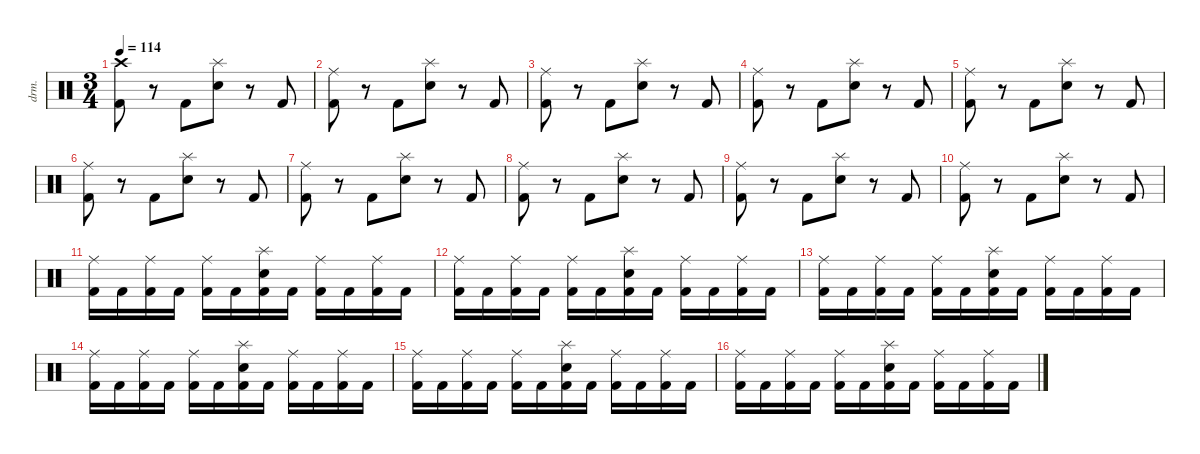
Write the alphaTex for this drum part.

\defaultSystemsLayout 4
\hideDynamics
\bracketExtendMode nobrackets
\otherSystemsTrackNameOrientation horizontal
\track ("Drums" "drm.") {instrument percussion}
\staff {score}
\articulation defaults
\ts (3 4)
\tempo 114
\clef neutral
\ks c
("Crash high (hit)" "Kick (hit) 2").8{dy mp} r.8 "Kick (hit) 2".8 ("Splash (hit)" "Snare (hit) 2").8 r.8 "Kick (hit) 2".8 |
("Ride (middle)" "Kick (hit) 2").8 r.8 "Kick (hit) 2".8 ("Splash (hit)" "Snare (hit) 2").8 r.8 "Kick (hit) 2".8 |
("Ride (middle)" "Kick (hit) 2").8 r.8 "Kick (hit) 2".8 ("Splash (hit)" "Snare (hit) 2").8 r.8 "Kick (hit) 2".8 |
("Ride (middle)" "Kick (hit) 2").8 r.8 "Kick (hit) 2".8 ("Splash (hit)" "Snare (hit) 2").8 r.8 "Kick (hit) 2".8 |
("Ride (middle)" "Kick (hit) 2").8 r.8 "Kick (hit) 2".8 ("Splash (hit)" "Snare (hit) 2").8 r.8 "Kick (hit) 2".8 |
("Ride (middle)" "Kick (hit) 2").8 r.8 "Kick (hit) 2".8 ("Splash (hit)" "Snare (hit) 2").8 r.8 "Kick (hit) 2".8 |
("Ride (middle)" "Kick (hit) 2").8 r.8 "Kick (hit) 2".8 ("Splash (hit)" "Snare (hit) 2").8 r.8 "Kick (hit) 2".8 |
("Ride (middle)" "Kick (hit) 2").8 r.8 "Kick (hit) 2".8 ("Splash (hit)" "Snare (hit) 2").8 r.8 "Kick (hit) 2".8 |
("Ride (middle)" "Kick (hit) 2").8 r.8 "Kick (hit) 2".8 ("Splash (hit)" "Snare (hit) 2").8 r.8 "Kick (hit) 2".8 |
("Ride (middle)" "Kick (hit) 2").8 r.8 "Kick (hit) 2".8 ("Splash (hit)" "Snare (hit) 2").8 r.8 "Kick (hit) 2".8 |
("Ride (middle)" "Kick (hit) 2").16{dy f} "Kick (hit) 2".16 ("Ride (middle)" "Kick (hit) 2").16 "Kick (hit) 2".16 ("Ride (middle)" "Kick (hit) 2").16 "Kick (hit) 2".16 ("Splash (hit)" "Snare (hit) 2" "Kick (hit) 2").16 "Kick (hit) 2".16 ("Ride (middle)" "Kick (hit) 2").16 "Kick (hit) 2".16 ("Ride (middle)" "Kick (hit) 2").16 "Kick (hit) 2".16 |
("Ride (middle)" "Kick (hit) 2").16 "Kick (hit) 2".16 ("Ride (middle)" "Kick (hit) 2").16 "Kick (hit) 2".16 ("Ride (middle)" "Kick (hit) 2").16 "Kick (hit) 2".16 ("Splash (hit)" "Snare (hit) 2" "Kick (hit) 2").16 "Kick (hit) 2".16 ("Ride (middle)" "Kick (hit) 2").16 "Kick (hit) 2".16 ("Ride (middle)" "Kick (hit) 2").16 "Kick (hit) 2".16 |
("Ride (middle)" "Kick (hit) 2").16 "Kick (hit) 2".16 ("Ride (middle)" "Kick (hit) 2").16 "Kick (hit) 2".16 ("Ride (middle)" "Kick (hit) 2").16 "Kick (hit) 2".16 ("Splash (hit)" "Snare (hit) 2" "Kick (hit) 2").16 "Kick (hit) 2".16 ("Ride (middle)" "Kick (hit) 2").16 "Kick (hit) 2".16 ("Ride (middle)" "Kick (hit) 2").16 "Kick (hit) 2".16 |
("Ride (middle)" "Kick (hit) 2").16 "Kick (hit) 2".16 ("Ride (middle)" "Kick (hit) 2").16 "Kick (hit) 2".16 ("Ride (middle)" "Kick (hit) 2").16 "Kick (hit) 2".16 ("Splash (hit)" "Snare (hit) 2" "Kick (hit) 2").16 "Kick (hit) 2".16 ("Ride (middle)" "Kick (hit) 2").16 "Kick (hit) 2".16 ("Ride (middle)" "Kick (hit) 2").16 "Kick (hit) 2".16 |
("Ride (middle)" "Kick (hit) 2").16 "Kick (hit) 2".16 ("Ride (middle)" "Kick (hit) 2").16 "Kick (hit) 2".16 ("Ride (middle)" "Kick (hit) 2").16 "Kick (hit) 2".16 ("Splash (hit)" "Snare (hit) 2" "Kick (hit) 2").16 "Kick (hit) 2".16 ("Ride (middle)" "Kick (hit) 2").16 "Kick (hit) 2".16 ("Ride (middle)" "Kick (hit) 2").16 "Kick (hit) 2".16 |
("Ride (middle)" "Kick (hit) 2").16 "Kick (hit) 2".16 ("Ride (middle)" "Kick (hit) 2").16 "Kick (hit) 2".16 ("Ride (middle)" "Kick (hit) 2").16 "Kick (hit) 2".16 ("Splash (hit)" "Snare (hit) 2" "Kick (hit) 2").16 "Kick (hit) 2".16 ("Ride (middle)" "Kick (hit) 2").16 "Kick (hit) 2".16 ("Ride (middle)" "Kick (hit) 2").16 "Kick (hit) 2".16
